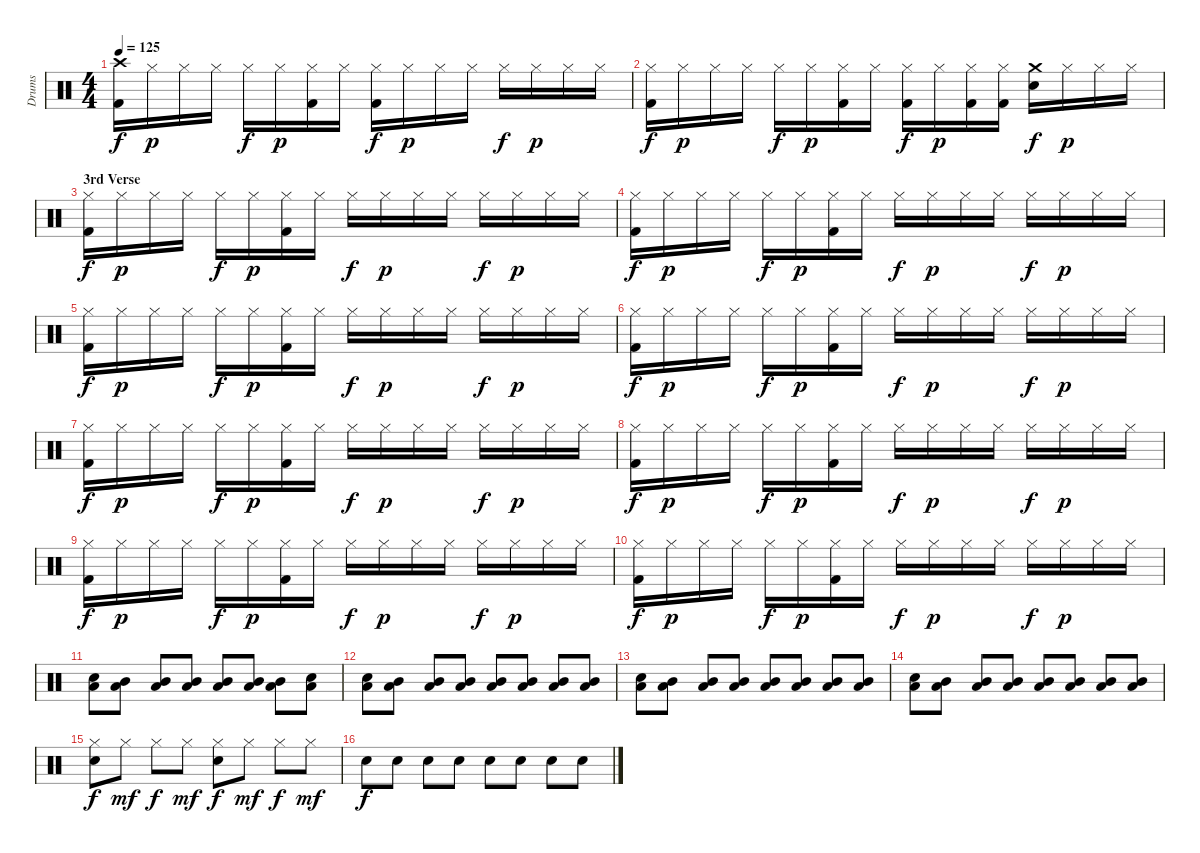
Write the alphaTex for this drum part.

\track ("Drums" "Drums") {instrument percussion}
\staff {score}
\articulation defaults
\ts (4 4)
\tempo 125
\clef neutral
\ks c
("Crash high (hit)" "Kick (hit) 2").16{dy f} "Hi-Hat (closed)".16{dy p} "Hi-Hat (closed)".16 "Hi-Hat (closed)".16 "Hi-Hat (closed)".16{dy f} "Hi-Hat (closed)".16{dy p} ("Hi-Hat (closed)" "Kick (hit) 2").16 "Hi-Hat (closed)".16 ("Hi-Hat (closed)" "Kick (hit) 2").16{dy f} "Hi-Hat (closed)".16{dy p} "Hi-Hat (closed)".16 "Hi-Hat (closed)".16 "Hi-Hat (closed)".16{dy f} "Hi-Hat (closed)".16{dy p} "Hi-Hat (closed)".16 "Hi-Hat (closed)".16 |
("Hi-Hat (closed)" "Kick (hit) 2").16{dy f} "Hi-Hat (closed)".16{dy p} "Hi-Hat (closed)".16 "Hi-Hat (closed)".16 "Hi-Hat (closed)".16{dy f} "Hi-Hat (closed)".16{dy p} ("Hi-Hat (closed)" "Kick (hit) 2").16 "Hi-Hat (closed)".16 ("Hi-Hat (closed)" "Kick (hit) 2").16{dy f} "Hi-Hat (closed)".16{dy p} ("Hi-Hat (closed)" "Kick (hit) 2").16 ("Hi-Hat (closed)" "Kick (hit) 2").16 ("Crash medium (hit)" "Snare (hit) 2").16{dy f} "Hi-Hat (closed)".16{dy p} "Hi-Hat (closed)".16 "Hi-Hat (closed)".16 |
\section ("" "3rd Verse")
("Hi-Hat (closed)" "Kick (hit) 2").16{dy f} "Hi-Hat (closed)".16{dy p} "Hi-Hat (closed)".16 "Hi-Hat (closed)".16 "Hi-Hat (closed)".16{dy f} "Hi-Hat (closed)".16{dy p} ("Hi-Hat (closed)" "Kick (hit) 2").16 "Hi-Hat (closed)".16 "Hi-Hat (closed)".16{dy f} "Hi-Hat (closed)".16{dy p} "Hi-Hat (closed)".16 "Hi-Hat (closed)".16 "Hi-Hat (closed)".16{dy f} "Hi-Hat (closed)".16{dy p} "Hi-Hat (closed)".16 "Hi-Hat (closed)".16 |
("Hi-Hat (closed)" "Kick (hit) 2").16{dy f} "Hi-Hat (closed)".16{dy p} "Hi-Hat (closed)".16 "Hi-Hat (closed)".16 "Hi-Hat (closed)".16{dy f} "Hi-Hat (closed)".16{dy p} ("Hi-Hat (closed)" "Kick (hit) 2").16 "Hi-Hat (closed)".16 "Hi-Hat (closed)".16{dy f} "Hi-Hat (closed)".16{dy p} "Hi-Hat (closed)".16 "Hi-Hat (closed)".16 "Hi-Hat (closed)".16{dy f} "Hi-Hat (closed)".16{dy p} "Hi-Hat (closed)".16 "Hi-Hat (closed)".16 |
("Hi-Hat (closed)" "Kick (hit) 2").16{dy f} "Hi-Hat (closed)".16{dy p} "Hi-Hat (closed)".16 "Hi-Hat (closed)".16 "Hi-Hat (closed)".16{dy f} "Hi-Hat (closed)".16{dy p} ("Hi-Hat (closed)" "Kick (hit) 2").16 "Hi-Hat (closed)".16 "Hi-Hat (closed)".16{dy f} "Hi-Hat (closed)".16{dy p} "Hi-Hat (closed)".16 "Hi-Hat (closed)".16 "Hi-Hat (closed)".16{dy f} "Hi-Hat (closed)".16{dy p} "Hi-Hat (closed)".16 "Hi-Hat (closed)".16 |
("Hi-Hat (closed)" "Kick (hit) 2").16{dy f} "Hi-Hat (closed)".16{dy p} "Hi-Hat (closed)".16 "Hi-Hat (closed)".16 "Hi-Hat (closed)".16{dy f} "Hi-Hat (closed)".16{dy p} ("Hi-Hat (closed)" "Kick (hit) 2").16 "Hi-Hat (closed)".16 "Hi-Hat (closed)".16{dy f} "Hi-Hat (closed)".16{dy p} "Hi-Hat (closed)".16 "Hi-Hat (closed)".16 "Hi-Hat (closed)".16{dy f} "Hi-Hat (closed)".16{dy p} "Hi-Hat (closed)".16 "Hi-Hat (closed)".16 |
("Hi-Hat (closed)" "Kick (hit) 2").16{dy f} "Hi-Hat (closed)".16{dy p} "Hi-Hat (closed)".16 "Hi-Hat (closed)".16 "Hi-Hat (closed)".16{dy f} "Hi-Hat (closed)".16{dy p} ("Hi-Hat (closed)" "Kick (hit) 2").16 "Hi-Hat (closed)".16 "Hi-Hat (closed)".16{dy f} "Hi-Hat (closed)".16{dy p} "Hi-Hat (closed)".16 "Hi-Hat (closed)".16 "Hi-Hat (closed)".16{dy f} "Hi-Hat (closed)".16{dy p} "Hi-Hat (closed)".16 "Hi-Hat (closed)".16 |
("Hi-Hat (closed)" "Kick (hit) 2").16{dy f} "Hi-Hat (closed)".16{dy p} "Hi-Hat (closed)".16 "Hi-Hat (closed)".16 "Hi-Hat (closed)".16{dy f} "Hi-Hat (closed)".16{dy p} ("Hi-Hat (closed)" "Kick (hit) 2").16 "Hi-Hat (closed)".16 "Hi-Hat (closed)".16{dy f} "Hi-Hat (closed)".16{dy p} "Hi-Hat (closed)".16 "Hi-Hat (closed)".16 "Hi-Hat (closed)".16{dy f} "Hi-Hat (closed)".16{dy p} "Hi-Hat (closed)".16 "Hi-Hat (closed)".16 |
("Hi-Hat (closed)" "Kick (hit) 2").16{dy f} "Hi-Hat (closed)".16{dy p} "Hi-Hat (closed)".16 "Hi-Hat (closed)".16 "Hi-Hat (closed)".16{dy f} "Hi-Hat (closed)".16{dy p} ("Hi-Hat (closed)" "Kick (hit) 2").16 "Hi-Hat (closed)".16 "Hi-Hat (closed)".16{dy f} "Hi-Hat (closed)".16{dy p} "Hi-Hat (closed)".16 "Hi-Hat (closed)".16 "Hi-Hat (closed)".16{dy f} "Hi-Hat (closed)".16{dy p} "Hi-Hat (closed)".16 "Hi-Hat (closed)".16 |
("Hi-Hat (closed)" "Kick (hit) 2").16{dy f} "Hi-Hat (closed)".16{dy p} "Hi-Hat (closed)".16 "Hi-Hat (closed)".16 "Hi-Hat (closed)".16{dy f} "Hi-Hat (closed)".16{dy p} ("Hi-Hat (closed)" "Kick (hit) 2").16 "Hi-Hat (closed)".16 "Hi-Hat (closed)".16{dy f} "Hi-Hat (closed)".16{dy p} "Hi-Hat (closed)".16 "Hi-Hat (closed)".16 "Hi-Hat (closed)".16{dy f} "Hi-Hat (closed)".16{dy p} "Hi-Hat (closed)".16 "Hi-Hat (closed)".16 |
("Snare (hit) 2" "Low Tom (hit)").8 ("Mid Tom (hit)" "Low Tom (hit)").8 ("Mid Tom (hit)" "Low Tom (hit)").8 ("Mid Tom (hit)" "Low Tom (hit)").8 ("Mid Tom (hit)" "Low Tom (hit)").8 ("Mid Tom (hit)" "Low Tom (hit)").8 ("Mid Tom (hit)" "Low Tom (hit)").8 ("Snare (hit) 2" "Low Tom (hit)").8 |
("Snare (hit) 2" "Low Tom (hit)").8 ("Mid Tom (hit)" "Low Tom (hit)").8 ("Mid Tom (hit)" "Low Tom (hit)").8 ("Mid Tom (hit)" "Low Tom (hit)").8 ("Mid Tom (hit)" "Low Tom (hit)").8 ("Mid Tom (hit)" "Low Tom (hit)").8 ("Mid Tom (hit)" "Low Tom (hit)").8 ("Mid Tom (hit)" "Low Tom (hit)").8 |
("Snare (hit) 2" "Low Tom (hit)").8 ("Mid Tom (hit)" "Low Tom (hit)").8 ("Mid Tom (hit)" "Low Tom (hit)").8 ("Mid Tom (hit)" "Low Tom (hit)").8 ("Mid Tom (hit)" "Low Tom (hit)").8 ("Mid Tom (hit)" "Low Tom (hit)").8 ("Mid Tom (hit)" "Low Tom (hit)").8 ("Mid Tom (hit)" "Low Tom (hit)").8 |
("Snare (hit) 2" "Low Tom (hit)").8 ("Mid Tom (hit)" "Low Tom (hit)").8 ("Mid Tom (hit)" "Low Tom (hit)").8 ("Mid Tom (hit)" "Low Tom (hit)").8 ("Mid Tom (hit)" "Low Tom (hit)").8 ("Mid Tom (hit)" "Low Tom (hit)").8 ("Mid Tom (hit)" "Low Tom (hit)").8 ("Mid Tom (hit)" "Low Tom (hit)").8 |
("Hi-Hat (closed)" "Snare (hit) 2").8{dy f} "Hi-Hat (closed)".8{dy mf} "Hi-Hat (closed)".8{dy f} "Hi-Hat (closed)".8{dy mf} ("Hi-Hat (closed)" "Snare (hit) 2").8{dy f} "Hi-Hat (closed)".8{dy mf} "Hi-Hat (closed)".8{dy f} "Hi-Hat (closed)".8{dy mf} |
"Snare (hit) 2".8{dy f} "Snare (hit) 2".8 "Snare (hit) 2".8 "Snare (hit) 2".8 "Snare (hit) 2".8 "Snare (hit) 2".8 "Snare (hit) 2".8 "Snare (hit) 2".8
